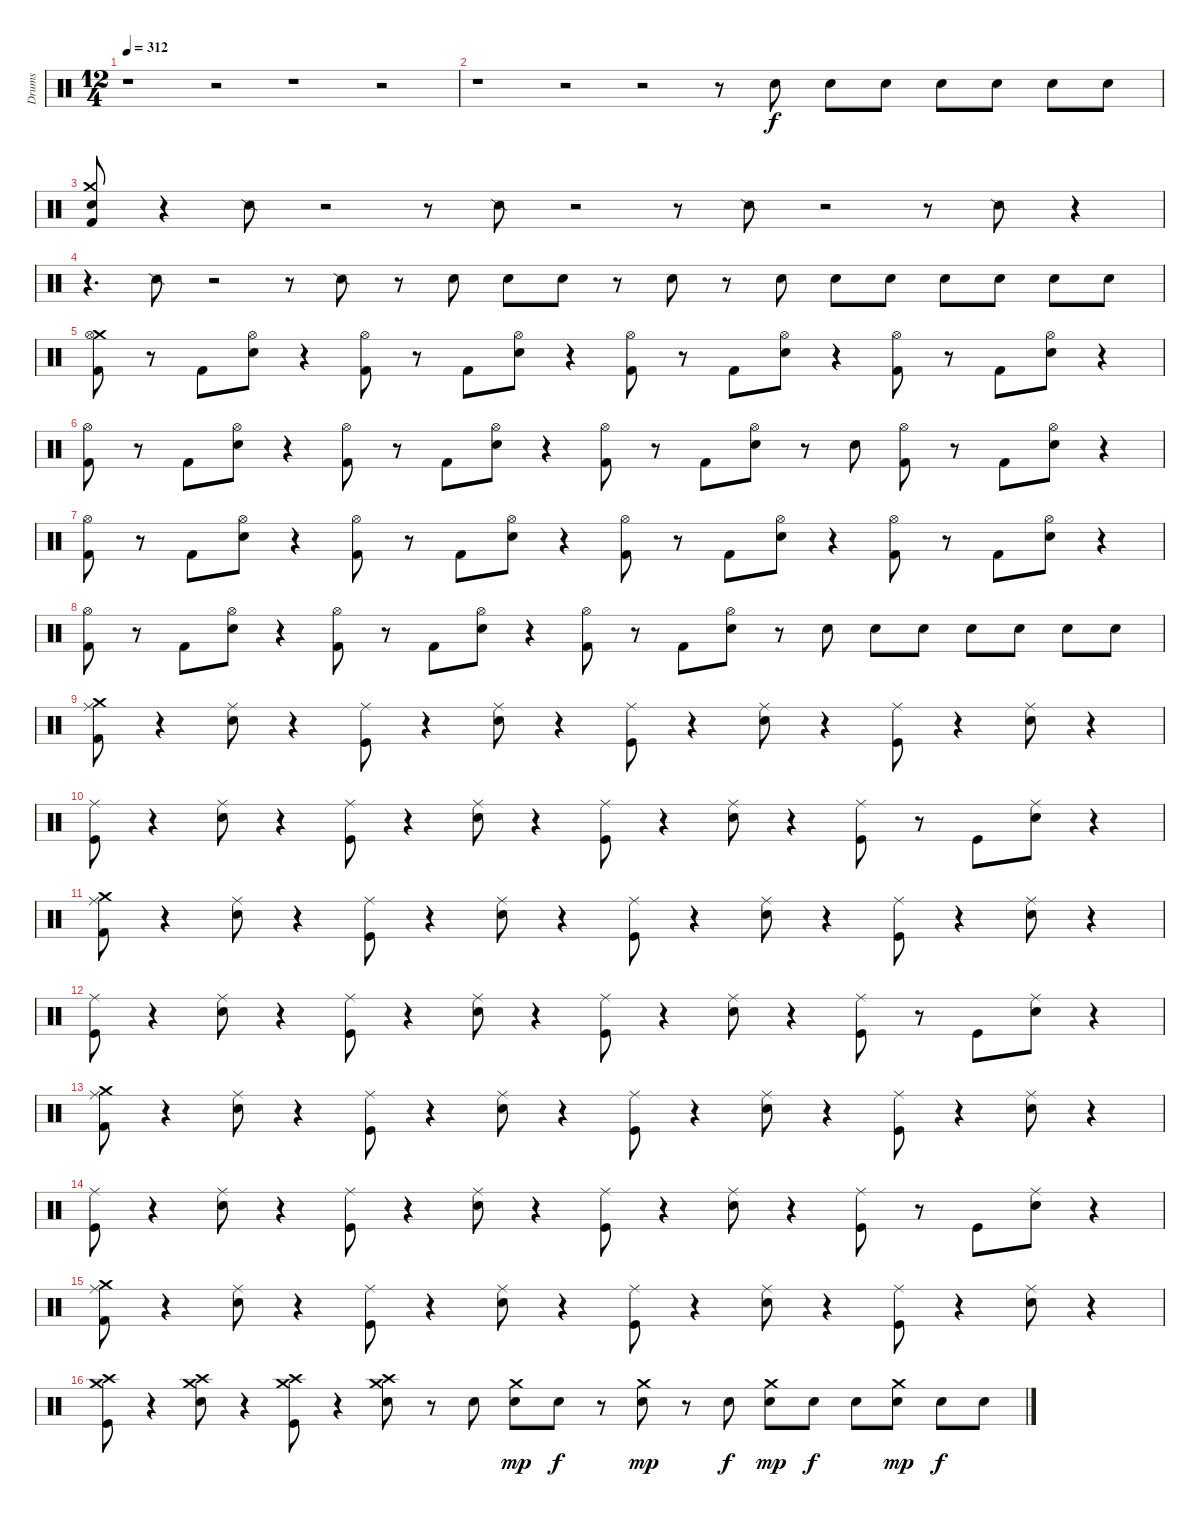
\track ("Drums" "Drums") {instrument percussion}
\staff {score}
\articulation defaults
\ts (12 4)
\tempo 312
\clef neutral
\ks c
r.1{dy f} r.2 r.1 r.2 |
r.1 r.2 r.2 r.8 "Electric Snare (hit)".8 "Electric Snare (hit)".8 "Electric Snare (hit)".8 "Electric Snare (hit)".8 "Electric Snare (hit)".8 "Electric Snare (hit)".8 "Electric Snare (hit)".8 |
("Crash medium (hit)" "Electric Snare (hit)" "Kick (hit) 2").8 r.4 "Snare (side stick) 2".8 r.2 r.8 "Snare (side stick) 2".8 r.2 r.8 "Snare (side stick) 2".8 r.2 r.8 "Snare (side stick) 2".8 r.4 |
r.4{d} "Snare (side stick) 2".8 r.2 r.8 "Snare (side stick) 2".8 r.8 "Electric Snare (hit)".8 "Electric Snare (hit)".8 "Electric Snare (hit)".8 r.8 "Electric Snare (hit)".8 r.8 "Electric Snare (hit)".8 "Electric Snare (hit)".8 "Electric Snare (hit)".8 "Electric Snare (hit)".8 "Electric Snare (hit)".8 "Electric Snare (hit)".8 "Electric Snare (hit)".8 |
("Crash medium (hit)" "Kick (hit) 2" "Hi-Hat (open)").8 r.8 "Kick (hit) 2".8 ("Hi-Hat (open)" "Electric Snare (hit)").8 r.4 ("Hi-Hat (open)" "Kick (hit) 2").8 r.8 "Kick (hit) 2".8 ("Electric Snare (hit)" "Hi-Hat (open)").8 r.4 ("Hi-Hat (open)" "Kick (hit) 2").8 r.8 "Kick (hit) 2".8 ("Hi-Hat (open)" "Electric Snare (hit)").8 r.4 ("Hi-Hat (open)" "Kick (hit) 2").8 r.8 "Kick (hit) 2".8 ("Hi-Hat (open)" "Electric Snare (hit)").8 r.4 |
("Hi-Hat (open)" "Kick (hit) 2").8 r.8 "Kick (hit) 2".8 ("Hi-Hat (open)" "Electric Snare (hit)").8 r.4 ("Hi-Hat (open)" "Kick (hit) 2").8 r.8 "Kick (hit) 2".8 ("Hi-Hat (open)" "Electric Snare (hit)").8 r.4 ("Hi-Hat (open)" "Kick (hit) 2").8 r.8 "Kick (hit) 2".8 ("Hi-Hat (open)" "Electric Snare (hit)").8 r.8 "Electric Snare (hit)".8 ("Hi-Hat (open)" "Kick (hit) 2").8 r.8 "Kick (hit) 2".8 ("Hi-Hat (open)" "Electric Snare (hit)").8 r.4 |
("Kick (hit) 2" "Hi-Hat (open)").8 r.8 "Kick (hit) 2".8 ("Hi-Hat (open)" "Electric Snare (hit)").8 r.4 ("Hi-Hat (open)" "Kick (hit) 2").8 r.8 "Kick (hit) 2".8 ("Electric Snare (hit)" "Hi-Hat (open)").8 r.4 ("Hi-Hat (open)" "Kick (hit) 2").8 r.8 "Kick (hit) 2".8 ("Hi-Hat (open)" "Electric Snare (hit)").8 r.4 ("Hi-Hat (open)" "Kick (hit) 2").8 r.8 "Kick (hit) 2".8 ("Hi-Hat (open)" "Electric Snare (hit)").8 r.4 |
("Hi-Hat (open)" "Kick (hit) 2").8 r.8 "Kick (hit) 2".8 ("Hi-Hat (open)" "Electric Snare (hit)").8 r.4 ("Hi-Hat (open)" "Kick (hit) 2").8 r.8 "Kick (hit) 2".8 ("Hi-Hat (open)" "Electric Snare (hit)").8 r.4 ("Hi-Hat (open)" "Kick (hit) 2").8 r.8 "Kick (hit) 2".8 ("Hi-Hat (open)" "Electric Snare (hit)").8 r.8 "Electric Snare (hit)".8 "Electric Snare (hit)".8 "Electric Snare (hit)".8 "Electric Snare (hit)".8 "Electric Snare (hit)".8 "Electric Snare (hit)".8 "Electric Snare (hit)".8 |
("Crash medium (hit)" "Ride (middle)" "Kick (hit) 2").8 r.4 ("Ride (middle)" "Electric Snare (hit)").8 r.4 ("Ride (middle)" "Kick (hit)").8 r.4 ("Ride (middle)" "Electric Snare (hit)").8 r.4 ("Kick (hit)" "Ride (middle)").8 r.4 ("Electric Snare (hit)" "Ride (middle)").8 r.4 ("Ride (middle)" "Kick (hit)").8 r.4 ("Ride (middle)" "Electric Snare (hit)").8 r.4 |
("Kick (hit)" "Ride (middle)").8 r.4 ("Electric Snare (hit)" "Ride (middle)").8 r.4 ("Ride (middle)" "Kick (hit)").8 r.4 ("Ride (middle)" "Electric Snare (hit)").8 r.4 ("Kick (hit)" "Ride (middle)").8 r.4 ("Electric Snare (hit)" "Ride (middle)").8 r.4 ("Ride (middle)" "Kick (hit)").8 r.8 "Kick (hit)".8 ("Ride (middle)" "Electric Snare (hit)").8 r.4 |
("Crash medium (hit)" "Ride (middle)" "Kick (hit) 2").8 r.4 ("Ride (middle)" "Electric Snare (hit)").8 r.4 ("Ride (middle)" "Kick (hit)").8 r.4 ("Ride (middle)" "Electric Snare (hit)").8 r.4 ("Kick (hit)" "Ride (middle)").8 r.4 ("Electric Snare (hit)" "Ride (middle)").8 r.4 ("Ride (middle)" "Kick (hit)").8 r.4 ("Ride (middle)" "Electric Snare (hit)").8 r.4 |
("Kick (hit)" "Ride (middle)").8 r.4 ("Electric Snare (hit)" "Ride (middle)").8 r.4 ("Ride (middle)" "Kick (hit)").8 r.4 ("Ride (middle)" "Electric Snare (hit)").8 r.4 ("Kick (hit)" "Ride (middle)").8 r.4 ("Electric Snare (hit)" "Ride (middle)").8 r.4 ("Ride (middle)" "Kick (hit)").8 r.8 "Kick (hit)".8 ("Ride (middle)" "Electric Snare (hit)").8 r.4 |
("Crash medium (hit)" "Ride (middle)" "Kick (hit) 2").8 r.4 ("Ride (middle)" "Electric Snare (hit)").8 r.4 ("Ride (middle)" "Kick (hit)").8 r.4 ("Ride (middle)" "Electric Snare (hit)").8 r.4 ("Kick (hit)" "Ride (middle)").8 r.4 ("Electric Snare (hit)" "Ride (middle)").8 r.4 ("Ride (middle)" "Kick (hit)").8 r.4 ("Ride (middle)" "Electric Snare (hit)").8 r.4 |
("Kick (hit)" "Ride (middle)").8 r.4 ("Electric Snare (hit)" "Ride (middle)").8 r.4 ("Ride (middle)" "Kick (hit)").8 r.4 ("Ride (middle)" "Electric Snare (hit)").8 r.4 ("Kick (hit)" "Ride (middle)").8 r.4 ("Electric Snare (hit)" "Ride (middle)").8 r.4 ("Ride (middle)" "Kick (hit)").8 r.8 "Kick (hit)".8 ("Ride (middle)" "Electric Snare (hit)").8 r.4 |
("Crash medium (hit)" "Ride (middle)" "Kick (hit) 2").8 r.4 ("Ride (middle)" "Electric Snare (hit)").8 r.4 ("Ride (middle)" "Kick (hit)").8 r.4 ("Ride (middle)" "Electric Snare (hit)").8 r.4 ("Kick (hit)" "Ride (middle)").8 r.4 ("Electric Snare (hit)" "Ride (middle)").8 r.4 ("Ride (middle)" "Kick (hit)").8 r.4 ("Ride (middle)" "Electric Snare (hit)").8 r.4 |
("Kick (hit)" "Crash high (hit)" "Crash medium (hit)").8 r.4 ("Electric Snare (hit)" "Crash high (hit)" "Crash medium (hit)").8 r.4 ("Crash high (hit)" "Kick (hit)" "Crash medium (hit)").8 r.4 ("Crash high (hit)" "Electric Snare (hit)" "Crash medium (hit)").8 r.8 "Electric Snare (hit)".8 ("Electric Snare (hit)" "Crash medium (hit)").8{dy mp} "Electric Snare (hit)".8{dy f} r.8 ("Electric Snare (hit)" "Crash medium (hit)").8{dy mp} r.8 "Electric Snare (hit)".8{dy f} ("Electric Snare (hit)" "Crash medium (hit)").8{dy mp} "Electric Snare (hit)".8{dy f} "Electric Snare (hit)".8 ("Electric Snare (hit)" "Crash medium (hit)").8{dy mp} "Electric Snare (hit)".8{dy f} "Electric Snare (hit)".8
